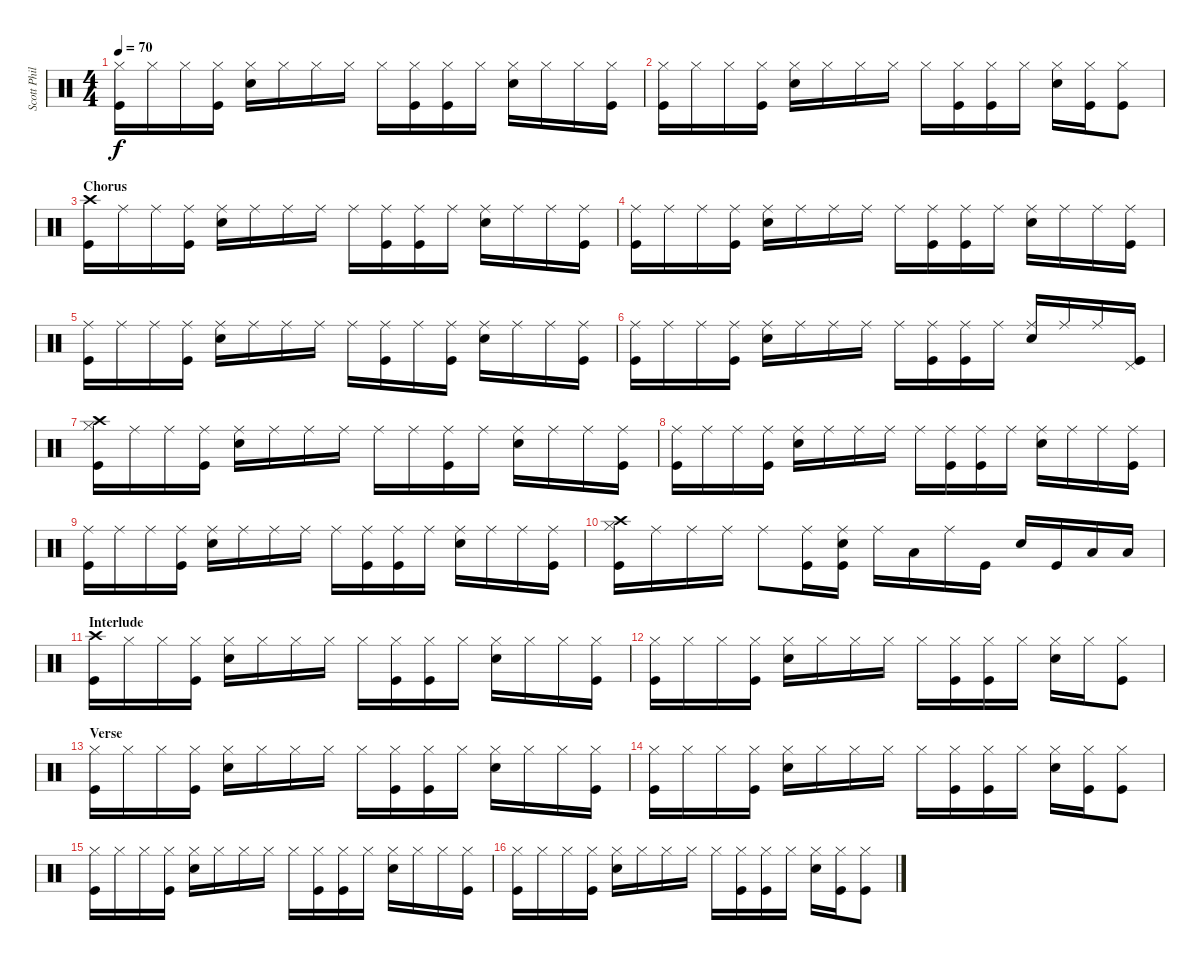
\track ("Scott Phillips" "Scott Phil") {instrument percussion}
\staff {score}
\articulation defaults
\ts (4 4)
\tempo 70
\clef neutral
\ks c
("Hi-Hat (closed)" "Kick (hit)").16{dy f} "Hi-Hat (closed)".16 "Hi-Hat (closed)".16 ("Hi-Hat (closed)" "Kick (hit)").16 ("Hi-Hat (closed)" "Snare (hit) 2").16 "Hi-Hat (closed)".16 "Hi-Hat (closed)".16 "Hi-Hat (closed)".16 "Hi-Hat (closed)".16 ("Hi-Hat (closed)" "Kick (hit)").16 ("Hi-Hat (closed)" "Kick (hit)").16 "Hi-Hat (closed)".16 ("Hi-Hat (closed)" "Snare (hit) 2").16 "Hi-Hat (closed)".16 "Hi-Hat (closed)".16 ("Hi-Hat (closed)" "Kick (hit)").16 |
("Hi-Hat (closed)" "Kick (hit)").16 "Hi-Hat (closed)".16 "Hi-Hat (closed)".16 ("Hi-Hat (closed)" "Kick (hit)").16 ("Hi-Hat (closed)" "Snare (hit) 2").16 "Hi-Hat (closed)".16 "Hi-Hat (closed)".16 "Hi-Hat (closed)".16 "Hi-Hat (closed)".16 ("Hi-Hat (closed)" "Kick (hit)").16 ("Hi-Hat (closed)" "Kick (hit)").16 "Hi-Hat (closed)".16 ("Hi-Hat (closed)" "Snare (hit) 2").16 ("Hi-Hat (closed)" "Kick (hit)").16 ("Hi-Hat (closed)" "Kick (hit)").8 |
\section ("" "Chorus")
("Crash high (hit)" "Kick (hit)").16 "Ride (middle)".16 "Ride (middle)".16 ("Ride (middle)" "Kick (hit)").16 ("Ride (middle)" "Snare (hit) 2").16 "Ride (middle)".16 "Ride (middle)".16 "Ride (middle)".16 "Ride (middle)".16 ("Ride (middle)" "Kick (hit)").16 ("Ride (middle)" "Kick (hit)").16 "Ride (middle)".16 ("Ride (middle)" "Snare (hit) 2").16 "Ride (middle)".16 "Ride (middle)".16 ("Ride (middle)" "Kick (hit)").16 |
("Ride (middle)" "Kick (hit)").16 "Ride (middle)".16 "Ride (middle)".16 ("Ride (middle)" "Kick (hit)").16 ("Ride (middle)" "Snare (hit) 2").16 "Ride (middle)".16 "Ride (middle)".16 "Ride (middle)".16 "Ride (middle)".16 ("Ride (middle)" "Kick (hit)").16 ("Ride (middle)" "Kick (hit)").16 "Ride (middle)".16 ("Ride (middle)" "Snare (hit) 2").16 "Ride (middle)".16 "Ride (middle)".16 ("Ride (middle)" "Kick (hit)").16 |
("Ride (middle)" "Kick (hit)").16 "Ride (middle)".16 "Ride (middle)".16 ("Ride (middle)" "Kick (hit)").16 ("Ride (middle)" "Snare (hit) 2").16 "Ride (middle)".16 "Ride (middle)".16 "Ride (middle)".16 "Ride (middle)".16 ("Ride (middle)" "Kick (hit)").16 "Ride (middle)".16 ("Ride (middle)" "Kick (hit)").16 ("Ride (middle)" "Snare (hit) 2").16 "Ride (middle)".16 "Ride (middle)".16 ("Ride (middle)" "Kick (hit)").16 |
("Ride (middle)" "Kick (hit)").16 "Ride (middle)".16 "Ride (middle)".16 ("Ride (middle)" "Kick (hit)").16 ("Ride (middle)" "Snare (hit) 2").16 "Ride (middle)".16 "Ride (middle)".16 "Ride (middle)".16 "Ride (middle)".16 ("Ride (middle)" "Kick (hit)").16 ("Ride (middle)" "Kick (hit)").16 "Ride (middle)".16 ("Ride (middle)" "Snare (hit) 2").16 "Ride (middle)".16 "Ride (middle)".16 ("Pedal Hi-Hat (hit)" "Kick (hit)").16 |
("Crash high (hit)" "Hi-Hat (closed)" "Kick (hit)").16 "Ride (middle)".16 "Ride (middle)".16 ("Ride (middle)" "Kick (hit)").16 ("Ride (middle)" "Snare (hit) 2").16 "Ride (middle)".16 "Ride (middle)".16 "Ride (middle)".16 "Ride (middle)".16 "Ride (middle)".16 ("Ride (middle)" "Kick (hit)").16 "Ride (middle)".16 ("Ride (middle)" "Snare (hit) 2").16 "Ride (middle)".16 "Ride (middle)".16 ("Ride (middle)" "Kick (hit)").16 |
("Ride (middle)" "Kick (hit)").16 "Ride (middle)".16 "Ride (middle)".16 ("Ride (middle)" "Kick (hit)").16 ("Ride (middle)" "Snare (hit) 2").16 "Ride (middle)".16 "Ride (middle)".16 "Ride (middle)".16 "Ride (middle)".16 ("Ride (middle)" "Kick (hit)").16 ("Ride (middle)" "Kick (hit)").16 "Ride (middle)".16 ("Ride (middle)" "Snare (hit) 2").16 "Ride (middle)".16 "Ride (middle)".16 ("Ride (middle)" "Kick (hit)").16 |
("Ride (middle)" "Kick (hit)").16 "Ride (middle)".16 "Ride (middle)".16 ("Ride (middle)" "Kick (hit)").16 ("Ride (middle)" "Snare (hit) 2").16 "Ride (middle)".16 "Ride (middle)".16 "Ride (middle)".16 "Ride (middle)".16 ("Ride (middle)" "Kick (hit)").16 ("Ride (middle)" "Kick (hit)").16 "Ride (middle)".16 ("Ride (middle)" "Snare (hit) 2").16 "Ride (middle)".16 "Ride (middle)".16 ("Ride (middle)" "Kick (hit)").16 |
("Crash high (hit)" "Hi-Hat (closed)" "Kick (hit)").16 "Ride (middle)".16 "Ride (middle)".16 "Ride (middle)".16 "Ride (middle)".8 ("Ride (middle)" "Kick (hit)").16 ("Ride (middle)" "Snare (hit) 2" "Kick (hit)").16 "Ride (middle)".16 "Low Tom (hit)".16 "Ride (middle)".16 "Kick (hit)".16 "Snare (hit) 2".16 "Kick (hit)".16 "Low Tom (hit)".16 "Low Tom (hit)".16 |
\section ("" "Interlude")
("Crash high (hit)" "Kick (hit)").16 "Hi-Hat (closed)".16 "Hi-Hat (closed)".16 ("Hi-Hat (closed)" "Kick (hit)").16 ("Hi-Hat (closed)" "Snare (hit) 2").16 "Hi-Hat (closed)".16 "Hi-Hat (closed)".16 "Hi-Hat (closed)".16 "Hi-Hat (closed)".16 ("Hi-Hat (closed)" "Kick (hit)").16 ("Hi-Hat (closed)" "Kick (hit)").16 "Hi-Hat (closed)".16 ("Hi-Hat (closed)" "Snare (hit) 2").16 "Hi-Hat (closed)".16 "Hi-Hat (closed)".16 ("Hi-Hat (closed)" "Kick (hit)").16 |
("Hi-Hat (closed)" "Kick (hit)").16 "Hi-Hat (closed)".16 "Hi-Hat (closed)".16 ("Hi-Hat (closed)" "Kick (hit)").16 ("Hi-Hat (closed)" "Snare (hit) 2").16 "Hi-Hat (closed)".16 "Hi-Hat (closed)".16 "Hi-Hat (closed)".16 "Hi-Hat (closed)".16 ("Hi-Hat (closed)" "Kick (hit)").16 ("Hi-Hat (closed)" "Kick (hit)").16 "Hi-Hat (closed)".16 ("Hi-Hat (closed)" "Snare (hit) 2").16 "Hi-Hat (closed)".16 ("Hi-Hat (closed)" "Kick (hit)").8 |
\section ("" "Verse")
("Hi-Hat (closed)" "Kick (hit)").16 "Hi-Hat (closed)".16 "Hi-Hat (closed)".16 ("Hi-Hat (closed)" "Kick (hit)").16 ("Hi-Hat (closed)" "Snare (hit) 2").16 "Hi-Hat (closed)".16 "Hi-Hat (closed)".16 "Hi-Hat (closed)".16 "Hi-Hat (closed)".16 ("Hi-Hat (closed)" "Kick (hit)").16 ("Hi-Hat (closed)" "Kick (hit)").16 "Hi-Hat (closed)".16 ("Hi-Hat (closed)" "Snare (hit) 2").16 "Hi-Hat (closed)".16 "Hi-Hat (closed)".16 ("Hi-Hat (closed)" "Kick (hit)").16 |
("Hi-Hat (closed)" "Kick (hit)").16 "Hi-Hat (closed)".16 "Hi-Hat (closed)".16 ("Hi-Hat (closed)" "Kick (hit)").16 ("Hi-Hat (closed)" "Snare (hit) 2").16 "Hi-Hat (closed)".16 "Hi-Hat (closed)".16 "Hi-Hat (closed)".16 "Hi-Hat (closed)".16 ("Hi-Hat (closed)" "Kick (hit)").16 ("Hi-Hat (closed)" "Kick (hit)").16 "Hi-Hat (closed)".16 ("Hi-Hat (closed)" "Snare (hit) 2").16 ("Hi-Hat (closed)" "Kick (hit)").16 ("Hi-Hat (closed)" "Kick (hit)").8 |
("Hi-Hat (closed)" "Kick (hit)").16 "Hi-Hat (closed)".16 "Hi-Hat (closed)".16 ("Hi-Hat (closed)" "Kick (hit)").16 ("Hi-Hat (closed)" "Snare (hit) 2").16 "Hi-Hat (closed)".16 "Hi-Hat (closed)".16 "Hi-Hat (closed)".16 "Hi-Hat (closed)".16 ("Hi-Hat (closed)" "Kick (hit)").16 ("Hi-Hat (closed)" "Kick (hit)").16 "Hi-Hat (closed)".16 ("Hi-Hat (closed)" "Snare (hit) 2").16 "Hi-Hat (closed)".16 "Hi-Hat (closed)".16 ("Hi-Hat (closed)" "Kick (hit)").16 |
("Hi-Hat (closed)" "Kick (hit)").16 "Hi-Hat (closed)".16 "Hi-Hat (closed)".16 ("Hi-Hat (closed)" "Kick (hit)").16 ("Hi-Hat (closed)" "Snare (hit) 2").16 "Hi-Hat (closed)".16 "Hi-Hat (closed)".16 "Hi-Hat (closed)".16 "Hi-Hat (closed)".16 ("Hi-Hat (closed)" "Kick (hit)").16 ("Hi-Hat (closed)" "Kick (hit)").16 "Hi-Hat (closed)".16 ("Hi-Hat (closed)" "Snare (hit) 2").16 ("Hi-Hat (closed)" "Kick (hit)").16 ("Hi-Hat (closed)" "Kick (hit)").8
